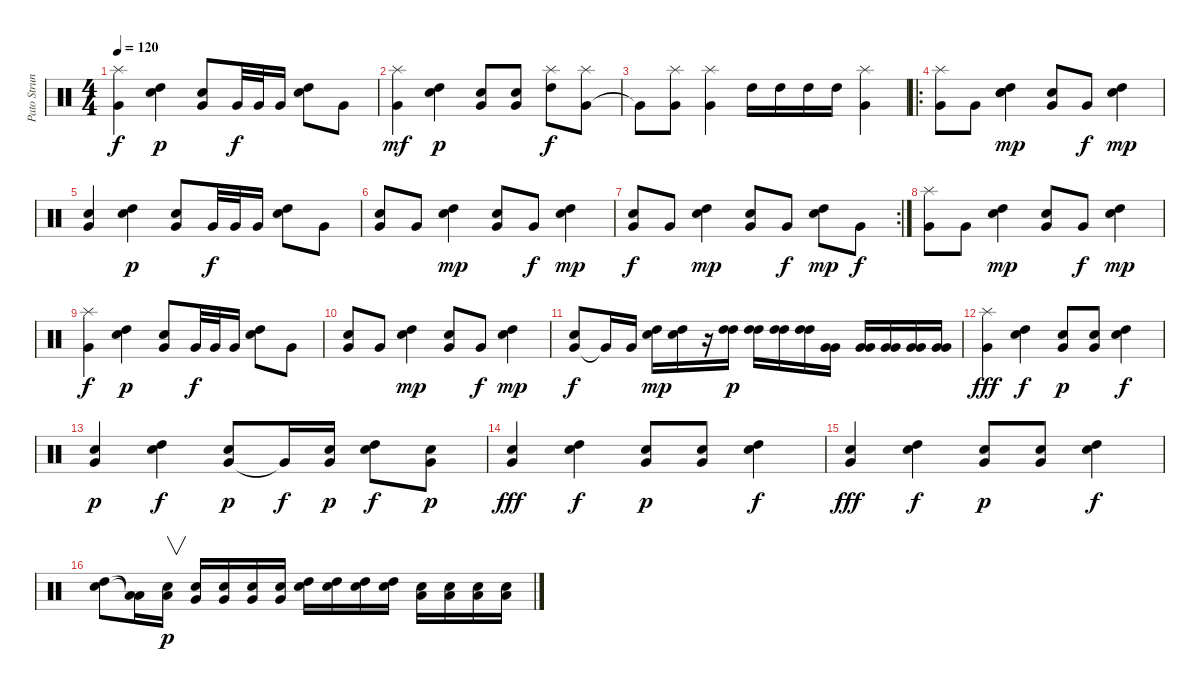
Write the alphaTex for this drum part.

\track ("Pato Strunz" "Pato Strun") {instrument percussion}
\staff {score}
\articulation defaults
\ts (4 4)
\tempo 120
\clef neutral
\ks c
("Very Low Tom (hit)" "Splash (hit)").4{dy f} ("High Tom (hit)" "Snare (hit) 2").4{dy p} ("Very Low Tom (hit)" "Snare (hit) 2").8 "Very Low Tom (hit)".32{dy f} "Very Low Tom (hit)".32 "Very Low Tom (hit)".16 ("High Tom (hit)" "Snare (hit) 2").8 "Very Low Tom (hit)".8 |
("Very Low Tom (hit)" "Splash (hit)").4{dy mf} ("High Tom (hit)" "Snare (hit) 2").4{dy p} ("Very Low Tom (hit)" "Snare (hit) 2").8 ("Very Low Tom (hit)" "Snare (hit) 2").8 ("High Tom (hit)" "Splash (hit)").8{dy f} ("Very Low Tom (hit)" "Splash (hit)").8 |
"Very Low Tom (hit)"{t}.8 ("Very Low Tom (hit)" "Splash (hit)").8 ("Very Low Tom (hit)" "Splash (hit)").4 "High Tom (hit)".16 "High Tom (hit)".16 "High Tom (hit)".16 "High Tom (hit)".16 ("Very Low Tom (hit)" "Splash (hit)").4 |
\ro
("Very Low Tom (hit)" "Splash (hit)").8{volume 16} "Very Low Tom (hit)".8 ("High Tom (hit)" "Snare (hit) 2" "Snare (hit)").4{dy mp} ("Very Low Tom (hit)" "Snare (hit) 2").8 "Very Low Tom (hit)".8{dy f} ("High Tom (hit)" "Snare (hit) 2").4{dy mp} |
("Very Low Tom (hit)" "Snare (hit) 2").4 ("High Tom (hit)" "Snare (hit) 2").4{dy p} ("Very Low Tom (hit)" "Snare (hit) 2").8 "Very Low Tom (hit)".32{dy f} "Very Low Tom (hit)".32 "Very Low Tom (hit)".16 ("High Tom (hit)" "Snare (hit) 2").8 "Very Low Tom (hit)".8 |
("Very Low Tom (hit)" "Snare (hit) 2").8 "Very Low Tom (hit)".8 ("High Tom (hit)" "Snare (hit) 2").4{dy mp} ("Very Low Tom (hit)" "Snare (hit) 2").8 "Very Low Tom (hit)".8{dy f} ("High Tom (hit)" "Snare (hit) 2").4{dy mp} |
\rc 2
("Very Low Tom (hit)" "Snare (hit) 2").8{dy f} "Very Low Tom (hit)".8 ("High Tom (hit)" "Snare (hit) 2").4{dy mp} ("Very Low Tom (hit)" "Snare (hit) 2").8 "Very Low Tom (hit)".8{dy f} ("High Tom (hit)" "Snare (hit) 2").8{dy mp} "Very Low Tom (hit)".8{dy f} |
("Very Low Tom (hit)" "Splash (hit)").8 "Very Low Tom (hit)".8 ("High Tom (hit)" "Snare (hit) 2").4{dy mp} ("Very Low Tom (hit)" "Snare (hit) 2").8 "Very Low Tom (hit)".8{dy f} ("High Tom (hit)" "Snare (hit) 2").4{dy mp} |
("Very Low Tom (hit)" "Splash (hit)").4{dy f} ("High Tom (hit)" "Snare (hit) 2").4{dy p} ("Very Low Tom (hit)" "Snare (hit) 2").8 "Very Low Tom (hit)".32{dy f} "Very Low Tom (hit)".32 "Very Low Tom (hit)".16 ("High Tom (hit)" "Snare (hit) 2").8 "Very Low Tom (hit)".8 |
("Very Low Tom (hit)" "Snare (hit) 2").8 "Very Low Tom (hit)".8 ("High Tom (hit)" "Snare (hit) 2").4{dy mp} ("Very Low Tom (hit)" "Snare (hit) 2").8 "Very Low Tom (hit)".8{dy f} ("High Tom (hit)" "Snare (hit) 2").4{dy mp} |
("Very Low Tom (hit)" "Snare (hit) 2").8{dy f} "Very Low Tom (hit)"{t}.16 "Very Low Tom (hit)".16 ("High Tom (hit)" "Snare (hit) 2").16{dy mp} ("High Tom (hit)" "Snare (hit) 2").16 r.16 ("High Tom (hit)" "High Tom (hit)").16{dy p} ("High Tom (hit)" "High Tom (hit)").16 ("High Tom (hit)" "High Tom (hit)").16 ("High Tom (hit)" "High Tom (hit)").16 ("Very Low Tom (hit)" "Very Low Tom (hit)").16 ("Very Low Tom (hit)" "Very Low Tom (hit)").16 ("Very Low Tom (hit)" "Very Low Tom (hit)").16 ("Very Low Tom (hit)" "Very Low Tom (hit)").16 ("Very Low Tom (hit)" "Very Low Tom (hit)").16 |
("Very Low Tom (hit)" "Splash (hit)").4{dy fff} ("High Tom (hit)" "Snare (hit) 2").4{dy f} ("Very Low Tom (hit)" "Snare (hit) 2").8{dy p} ("Very Low Tom (hit)" "Snare (hit) 2").8 ("High Tom (hit)" "Snare (hit) 2").4{dy f} |
("Very Low Tom (hit)" "Snare (hit) 2").4{dy p} ("High Tom (hit)" "Snare (hit) 2").4{dy f} ("Very Low Tom (hit)" "Snare (hit) 2").8{dy p} "Very Low Tom (hit)"{t}.16{dy f} ("Very Low Tom (hit)" "Snare (hit) 2").16{dy p} ("High Tom (hit)" "Snare (hit) 2").8{dy f} ("Very Low Tom (hit)" "Snare (hit) 2").8{dy p} |
("Very Low Tom (hit)" "Snare (hit) 2").4{dy fff} ("High Tom (hit)" "Snare (hit) 2").4{dy f} ("Very Low Tom (hit)" "Snare (hit) 2").8{dy p} ("Very Low Tom (hit)" "Snare (hit) 2").8 ("High Tom (hit)" "Snare (hit) 2").4{dy f} |
("Very Low Tom (hit)" "Snare (hit) 2").4{dy fff} ("High Tom (hit)" "Snare (hit) 2").4{dy f} ("Very Low Tom (hit)" "Snare (hit) 2").8{dy p} ("Very Low Tom (hit)" "Snare (hit) 2").8 ("High Tom (hit)" "Snare (hit) 2").4{dy f} |
("High Tom (hit)" "Snare (hit) 2").8 ("Low Tom (hit)"{t} "Low Tom (hit)"{t}).16 ("Low Tom (hit)" "Snare (hit) 2").16{v dy p} ("Very Low Tom (hit)" "Snare (hit) 2").16 ("Very Low Tom (hit)" "Snare (hit) 2").16 ("Very Low Tom (hit)" "Snare (hit) 2").16 ("Very Low Tom (hit)" "Snare (hit) 2").16 ("High Tom (hit)" "Snare (hit) 2").16 ("High Tom (hit)" "Snare (hit) 2").16 ("High Tom (hit)" "Snare (hit) 2").16 ("High Tom (hit)" "Snare (hit) 2").16 ("Low Tom (hit)" "Snare (hit) 2").16 ("Low Tom (hit)" "Snare (hit) 2").16 ("Low Tom (hit)" "Snare (hit) 2").16 ("Low Tom (hit)" "Snare (hit) 2").16
